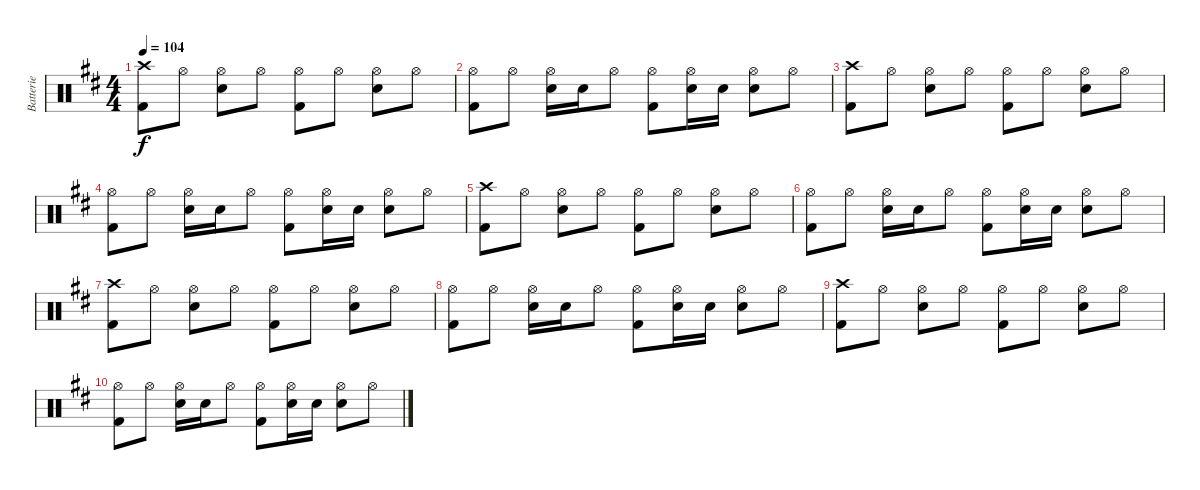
\track ("Batterie" "Batterie") {instrument percussion}
\staff {score}
\articulation defaults
\ts (4 4)
\tempo 104
\clef neutral
\ks d
("Crash high (hit)" "Kick (hit) 2").8{dy f} "Hi-Hat (open)".8 ("Hi-Hat (open)" "Snare (hit) 2").8 "Hi-Hat (open)".8 ("Hi-Hat (open)" "Kick (hit) 2").8 "Hi-Hat (open)".8 ("Hi-Hat (open)" "Snare (hit) 2").8 "Hi-Hat (open)".8 |
("Hi-Hat (open)" "Kick (hit) 2").8 "Hi-Hat (open)".8 ("Hi-Hat (open)" "Snare (hit) 2").16 "Snare (hit) 2".16 "Hi-Hat (open)".8 ("Hi-Hat (open)" "Kick (hit) 2").8 ("Hi-Hat (open)" "Snare (hit) 2").16 "Snare (hit) 2".16 ("Hi-Hat (open)" "Snare (hit) 2").8 "Hi-Hat (open)".8 |
("Crash high (hit)" "Kick (hit) 2").8 "Hi-Hat (open)".8 ("Hi-Hat (open)" "Snare (hit) 2").8 "Hi-Hat (open)".8 ("Hi-Hat (open)" "Kick (hit) 2").8 "Hi-Hat (open)".8 ("Hi-Hat (open)" "Snare (hit) 2").8 "Hi-Hat (open)".8 |
("Hi-Hat (open)" "Kick (hit) 2").8 "Hi-Hat (open)".8 ("Hi-Hat (open)" "Snare (hit) 2").16 "Snare (hit) 2".16 "Hi-Hat (open)".8 ("Hi-Hat (open)" "Kick (hit) 2").8 ("Hi-Hat (open)" "Snare (hit) 2").16 "Snare (hit) 2".16 ("Hi-Hat (open)" "Snare (hit) 2").8 "Hi-Hat (open)".8 |
("Crash high (hit)" "Kick (hit) 2").8 "Hi-Hat (open)".8 ("Hi-Hat (open)" "Snare (hit) 2").8 "Hi-Hat (open)".8 ("Hi-Hat (open)" "Kick (hit) 2").8 "Hi-Hat (open)".8 ("Hi-Hat (open)" "Snare (hit) 2").8 "Hi-Hat (open)".8 |
("Hi-Hat (open)" "Kick (hit) 2").8 "Hi-Hat (open)".8 ("Hi-Hat (open)" "Snare (hit) 2").16 "Snare (hit) 2".16 "Hi-Hat (open)".8 ("Hi-Hat (open)" "Kick (hit) 2").8 ("Hi-Hat (open)" "Snare (hit) 2").16 "Snare (hit) 2".16 ("Hi-Hat (open)" "Snare (hit) 2").8 "Hi-Hat (open)".8 |
("Crash high (hit)" "Kick (hit) 2").8 "Hi-Hat (open)".8 ("Hi-Hat (open)" "Snare (hit) 2").8 "Hi-Hat (open)".8 ("Hi-Hat (open)" "Kick (hit) 2").8 "Hi-Hat (open)".8 ("Hi-Hat (open)" "Snare (hit) 2").8 "Hi-Hat (open)".8 |
("Hi-Hat (open)" "Kick (hit) 2").8 "Hi-Hat (open)".8 ("Hi-Hat (open)" "Snare (hit) 2").16 "Snare (hit) 2".16 "Hi-Hat (open)".8 ("Hi-Hat (open)" "Kick (hit) 2").8 ("Hi-Hat (open)" "Snare (hit) 2").16 "Snare (hit) 2".16 ("Hi-Hat (open)" "Snare (hit) 2").8 "Hi-Hat (open)".8 |
("Crash high (hit)" "Kick (hit) 2").8 "Hi-Hat (open)".8 ("Hi-Hat (open)" "Snare (hit) 2").8 "Hi-Hat (open)".8 ("Hi-Hat (open)" "Kick (hit) 2").8 "Hi-Hat (open)".8 ("Hi-Hat (open)" "Snare (hit) 2").8 "Hi-Hat (open)".8 |
("Hi-Hat (open)" "Kick (hit) 2").8 "Hi-Hat (open)".8 ("Hi-Hat (open)" "Snare (hit) 2").16 "Snare (hit) 2".16 "Hi-Hat (open)".8 ("Hi-Hat (open)" "Kick (hit) 2").8 ("Hi-Hat (open)" "Snare (hit) 2").16 "Snare (hit) 2".16 ("Hi-Hat (open)" "Snare (hit) 2").8 "Hi-Hat (open)".8
